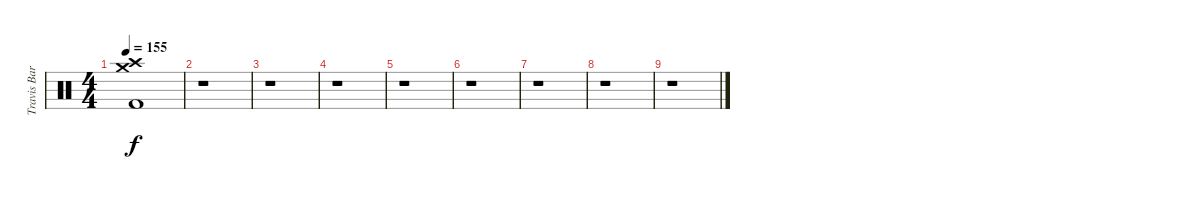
\track ("Travis Barker Drums" "Travis Bar") {mute instrument percussion}
\staff {score}
\articulation defaults
\ts (4 4)
\tempo 155
\clef neutral
\ks c
("Crash high (hit)" "Crash medium (hit)" "Kick (hit) 2").1{dy f} |
r.1 |
r.1 |
r.1 |
r.1 |
r.1 |
r.1 |
r.1 |
r.1
